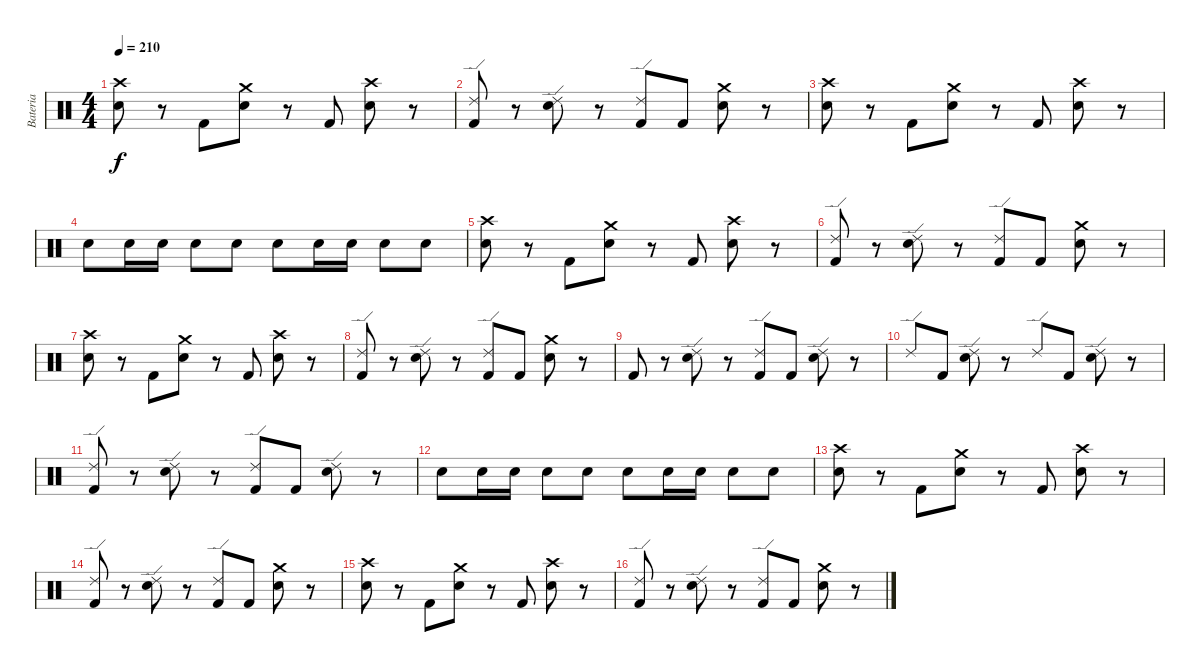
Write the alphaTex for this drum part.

\track ("Bateria" "Bateria") {instrument percussion}
\staff {score}
\articulation defaults
\ts (4 4)
\tempo 210
\clef neutral
\ks c
("Crash high (hit)" "Snare (hit) 2").8{dy f} r.8 "Kick (hit) 2".8 ("Crash medium (hit)" "Snare (hit) 2").8 r.8 "Kick (hit) 2".8 ("Crash high (hit)" "Snare (hit) 2").8 r.8 |
("Ride (edge) 2" "Kick (hit) 2").8 r.8 ("Ride (edge) 2" "Snare (hit) 2").8 r.8 ("Ride (edge) 2" "Kick (hit) 2").8 "Kick (hit) 2".8 ("Crash medium (hit)" "Snare (hit) 2").8 r.8 |
("Crash high (hit)" "Snare (hit) 2").8 r.8 "Kick (hit) 2".8 ("Crash medium (hit)" "Snare (hit) 2").8 r.8 "Kick (hit) 2".8 ("Crash high (hit)" "Snare (hit) 2").8 r.8 |
"Snare (hit) 2".8 "Snare (hit) 2".16 "Snare (hit) 2".16 "Snare (hit) 2".8 "Snare (hit) 2".8 "Snare (hit) 2".8 "Snare (hit) 2".16 "Snare (hit) 2".16 "Snare (hit) 2".8 "Snare (hit) 2".8 |
("Crash high (hit)" "Snare (hit) 2").8 r.8 "Kick (hit) 2".8 ("Crash medium (hit)" "Snare (hit) 2").8 r.8 "Kick (hit) 2".8 ("Crash high (hit)" "Snare (hit) 2").8 r.8 |
("Ride (edge) 2" "Kick (hit) 2").8 r.8 ("Ride (edge) 2" "Snare (hit) 2").8 r.8 ("Ride (edge) 2" "Kick (hit) 2").8 "Kick (hit) 2".8 ("Crash medium (hit)" "Snare (hit) 2").8 r.8 |
("Crash high (hit)" "Snare (hit) 2").8 r.8 "Kick (hit) 2".8 ("Crash medium (hit)" "Snare (hit) 2").8 r.8 "Kick (hit) 2".8 ("Crash high (hit)" "Snare (hit) 2").8 r.8 |
("Ride (edge) 2" "Kick (hit) 2").8 r.8 ("Ride (edge) 2" "Snare (hit) 2").8 r.8 ("Ride (edge) 2" "Kick (hit) 2").8 "Kick (hit) 2".8 ("Crash medium (hit)" "Snare (hit) 2").8 r.8 |
"Kick (hit) 2".8 r.8 ("Ride (edge) 2" "Snare (hit) 2").8 r.8 ("Ride (edge) 2" "Kick (hit) 2").8 "Kick (hit) 2".8 ("Ride (edge) 2" "Snare (hit) 2").8 r.8 |
"Ride (edge) 2".8 "Kick (hit) 2".8 ("Ride (edge) 2" "Snare (hit) 2").8 r.8 "Ride (edge) 2".8 "Kick (hit) 2".8 ("Ride (edge) 2" "Snare (hit) 2").8 r.8 |
("Ride (edge) 2" "Kick (hit) 2").8 r.8 ("Ride (edge) 2" "Snare (hit) 2").8 r.8 ("Ride (edge) 2" "Kick (hit) 2").8 "Kick (hit) 2".8 ("Ride (edge) 2" "Snare (hit) 2").8 r.8 |
"Snare (hit) 2".8 "Snare (hit) 2".16 "Snare (hit) 2".16 "Snare (hit) 2".8 "Snare (hit) 2".8 "Snare (hit) 2".8 "Snare (hit) 2".16 "Snare (hit) 2".16 "Snare (hit) 2".8 "Snare (hit) 2".8 |
("Crash high (hit)" "Snare (hit) 2").8 r.8 "Kick (hit) 2".8 ("Crash medium (hit)" "Snare (hit) 2").8 r.8 "Kick (hit) 2".8 ("Crash high (hit)" "Snare (hit) 2").8 r.8 |
("Ride (edge) 2" "Kick (hit) 2").8 r.8 ("Ride (edge) 2" "Snare (hit) 2").8 r.8 ("Ride (edge) 2" "Kick (hit) 2").8 "Kick (hit) 2".8 ("Crash medium (hit)" "Snare (hit) 2").8 r.8 |
("Crash high (hit)" "Snare (hit) 2").8 r.8 "Kick (hit) 2".8 ("Crash medium (hit)" "Snare (hit) 2").8 r.8 "Kick (hit) 2".8 ("Crash high (hit)" "Snare (hit) 2").8 r.8 |
("Ride (edge) 2" "Kick (hit) 2").8 r.8 ("Ride (edge) 2" "Snare (hit) 2").8 r.8 ("Ride (edge) 2" "Kick (hit) 2").8 "Kick (hit) 2".8 ("Crash medium (hit)" "Snare (hit) 2").8 r.8
